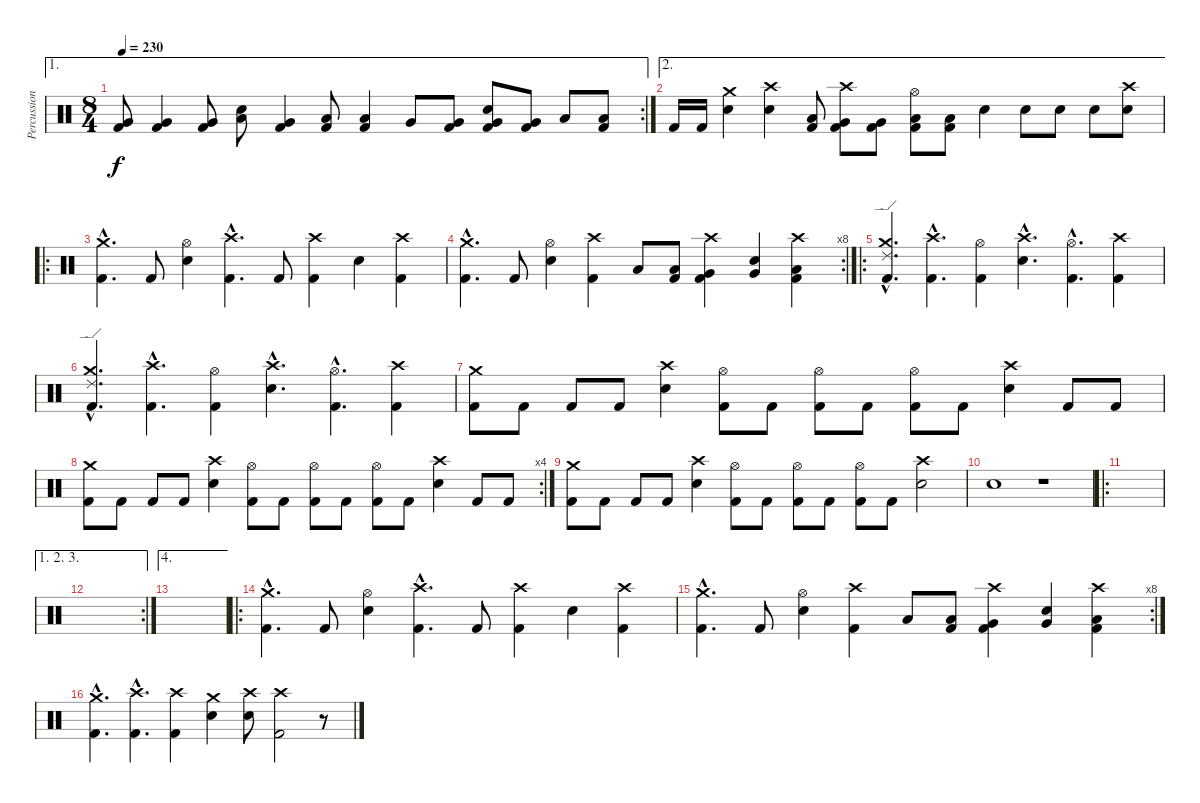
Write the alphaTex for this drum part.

\track ("Percussions" "Percussion") {instrument percussion}
\staff {score}
\articulation defaults
\ae 1
\rc 2
\ts (8 4)
\tempo 230
\clef neutral
\ks c
("Kick (hit) 2" "Very Low Tom (hit)").8{dy f} ("Kick (hit) 2" "Very Low Tom (hit)").4 ("Kick (hit) 2" "Very Low Tom (hit)").8 ("Electric Snare (hit)" "Low Tom (hit)").8 ("Kick (hit) 2" "Very Low Tom (hit)").4 ("Kick (hit) 2" "Low Floor Tom (hit)").8 ("Kick (hit) 2" "Low Floor Tom (hit)").4 "Very Low Tom (hit)".8 ("Kick (hit) 2" "Very Low Tom (hit)").8 ("Electric Snare (hit)" "Kick (hit) 2" "Very Low Tom (hit)").8 ("Kick (hit) 2" "Very Low Tom (hit)").8 "Low Tom (hit)".8 ("Kick (hit) 2" "Low Floor Tom (hit)").8 |
\ae 2 "Kick (hit) 2".16 "Kick (hit) 2".16
("Crash medium (hit)" "Electric Snare (hit)").4 ("Crash high (hit)" "Electric Snare (hit)").4 ("Low Tom (hit)" "Kick (hit) 2").8 ("Crash high (hit)" "Very Low Tom (hit)" "Kick (hit) 2").8 ("Very Low Tom (hit)" "Kick (hit) 2").8 ("Hi-Hat (open)" "Low Floor Tom (hit)" "Kick (hit) 2").8 ("Low Floor Tom (hit)" "Kick (hit) 2").8 "Electric Snare (hit)".4 "Electric Snare (hit)".8 "Electric Snare (hit)".8 "Electric Snare (hit)".8 ("Crash high (hit)" "Electric Snare (hit)").8 |
\ro
("Crash medium (hit)"{hac} "Kick (hit) 2"{hac}).4{d} "Kick (hit) 2".8 ("Hi-Hat (open)" "Electric Snare (hit)").4 ("Crash high (hit)"{hac} "Kick (hit) 2"{hac}).4{d} "Kick (hit) 2".8 ("Crash high (hit)" "Kick (hit) 2").4 "Electric Snare (hit)".4 ("Crash high (hit)" "Kick (hit) 2").4 |
\rc 8
("Crash medium (hit)"{hac} "Kick (hit) 2"{hac}).4{d} "Kick (hit) 2".8 ("Hi-Hat (open)" "Electric Snare (hit)").4 ("Crash high (hit)" "Kick (hit) 2").4 "Low Tom (hit)".8 ("Low Tom (hit)" "Kick (hit) 2").8 ("Crash high (hit)" "Very Low Tom (hit)" "Kick (hit) 2").4 ("Very Low Tom (hit)" "Electric Snare (hit)").4 ("Crash high (hit)" "Low Floor Tom (hit)" "Kick (hit) 2").4 |
\ro
("Ride (edge) 2"{hac} "Crash medium (hit)"{hac} "Kick (hit) 2"{hac}).4{d} ("Crash high (hit)"{hac} "Kick (hit) 2"{hac}).4{d} ("Hi-Hat (open)" "Kick (hit) 2").4 ("Crash high (hit)"{hac} "Electric Snare (hit)"{hac}).4{d} ("Hi-Hat (open)"{hac} "Kick (hit) 2"{hac}).4{d} ("Crash high (hit)" "Kick (hit) 2").4 |
("Ride (edge) 2"{hac} "Crash medium (hit)"{hac} "Kick (hit) 2"{hac}).4{d} ("Crash high (hit)"{hac} "Kick (hit) 2"{hac}).4{d} ("Hi-Hat (open)" "Kick (hit) 2").4 ("Crash high (hit)"{hac} "Electric Snare (hit)"{hac}).4{d} ("Hi-Hat (open)"{hac} "Kick (hit) 2"{hac}).4{d} ("Crash high (hit)" "Kick (hit) 2").4 |
("Crash medium (hit)" "Kick (hit) 2").8 "Kick (hit) 2".8 "Kick (hit) 2".8 "Kick (hit) 2".8 ("Crash high (hit)" "Electric Snare (hit)").4 ("Hi-Hat (open)" "Kick (hit) 2").8 "Kick (hit) 2".8 ("Hi-Hat (open)" "Kick (hit) 2").8 "Kick (hit) 2".8 ("Hi-Hat (open)" "Kick (hit) 2").8 "Kick (hit) 2".8 ("Crash high (hit)" "Electric Snare (hit)").4 "Kick (hit) 2".8 "Kick (hit) 2".8 |
\rc 4
("Crash medium (hit)" "Kick (hit) 2").8 "Kick (hit) 2".8 "Kick (hit) 2".8 "Kick (hit) 2".8 ("Crash high (hit)" "Electric Snare (hit)").4 ("Hi-Hat (open)" "Kick (hit) 2").8 "Kick (hit) 2".8 ("Hi-Hat (open)" "Kick (hit) 2").8 "Kick (hit) 2".8 ("Hi-Hat (open)" "Kick (hit) 2").8 "Kick (hit) 2".8 ("Crash high (hit)" "Electric Snare (hit)").4 "Kick (hit) 2".8 "Kick (hit) 2".8 |
("Crash medium (hit)" "Kick (hit) 2").8 "Kick (hit) 2".8 "Kick (hit) 2".8 "Kick (hit) 2".8 ("Crash high (hit)" "Electric Snare (hit)").4 ("Hi-Hat (open)" "Kick (hit) 2").8 "Kick (hit) 2".8 ("Hi-Hat (open)" "Kick (hit) 2").8 "Kick (hit) 2".8 ("Hi-Hat (open)" "Kick (hit) 2").8 "Kick (hit) 2".8 ("Crash high (hit)" "Electric Snare (hit)").2 |
"Electric Snare (hit)".1 r.1 |
\ro
|
\ae (1 2 3)
\rc 2
|
\ae 4
|
\ro
("Crash medium (hit)"{hac} "Kick (hit) 2"{hac}).4{d} "Kick (hit) 2".8 ("Hi-Hat (open)" "Electric Snare (hit)").4 ("Crash high (hit)"{hac} "Kick (hit) 2"{hac}).4{d} "Kick (hit) 2".8 ("Crash high (hit)" "Kick (hit) 2").4 "Electric Snare (hit)".4 ("Crash high (hit)" "Kick (hit) 2").4 |
\rc 8
("Crash medium (hit)"{hac} "Kick (hit) 2"{hac}).4{d} "Kick (hit) 2".8 ("Hi-Hat (open)" "Electric Snare (hit)").4 ("Crash high (hit)" "Kick (hit) 2").4 "Low Tom (hit)".8 ("Low Tom (hit)" "Kick (hit) 2").8 ("Crash high (hit)" "Very Low Tom (hit)" "Kick (hit) 2").4 ("Very Low Tom (hit)" "Electric Snare (hit)").4 ("Crash high (hit)" "Low Floor Tom (hit)" "Kick (hit) 2").4 |
("Crash medium (hit)"{hac} "Kick (hit) 2"{hac}).4{d} ("Crash high (hit)"{hac} "Kick (hit) 2"{hac}).4{d} ("Crash high (hit)" "Kick (hit) 2").4 ("Crash medium (hit)" "Electric Snare (hit)").4 ("Crash high (hit)" "Electric Snare (hit)").8 ("Crash high (hit)" "Kick (hit) 2").2 r.8
